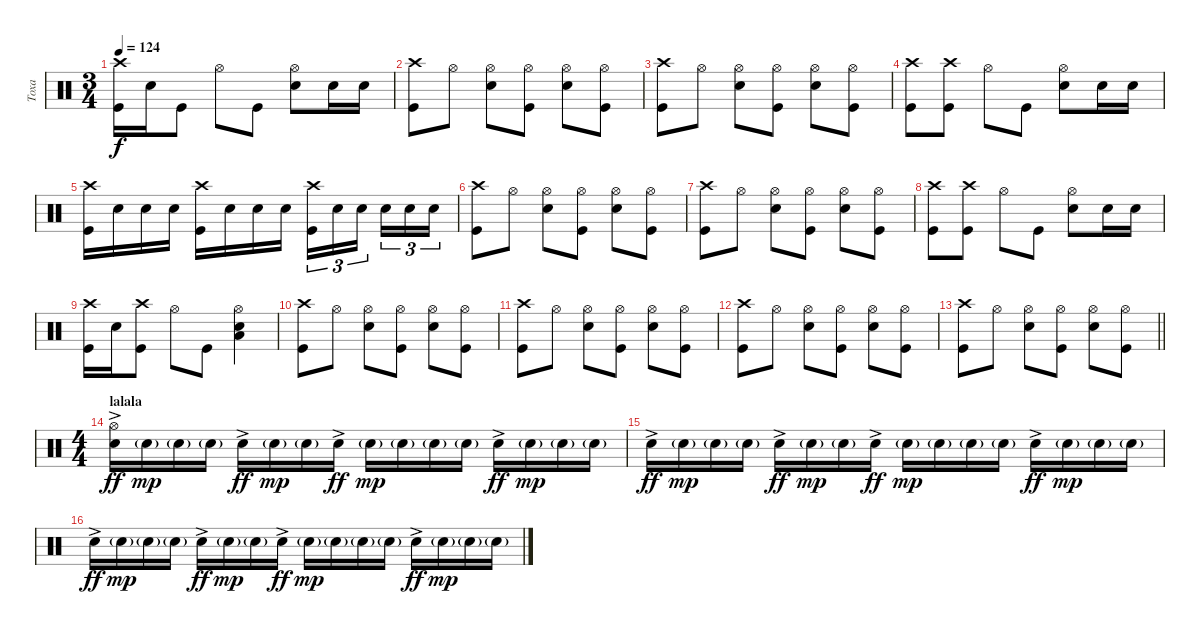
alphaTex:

\track ("Тоха" "Тоха") {instrument percussion}
\staff {score}
\articulation defaults
\ts (3 4)
\tempo 124
\clef neutral
\ks c
("Kick (hit)" "Crash high (hit)").16{dy f} "Snare (hit) 2".16 "Kick (hit)".8 "Hi-Hat (open)".8 "Kick (hit)".8 ("Snare (hit) 2" "Hi-Hat (open)").8 "Snare (hit) 2".16 "Snare (hit) 2".16 |
("Kick (hit)" "Crash high (hit)").8 "Hi-Hat (open)".8 ("Snare (hit) 2" "Hi-Hat (open)").8 ("Kick (hit)" "Hi-Hat (open)").8 ("Snare (hit) 2" "Hi-Hat (open)").8 ("Kick (hit)" "Hi-Hat (open)").8 |
("Kick (hit)" "Crash high (hit)").8 "Hi-Hat (open)".8 ("Snare (hit) 2" "Hi-Hat (open)").8 ("Kick (hit)" "Hi-Hat (open)").8 ("Snare (hit) 2" "Hi-Hat (open)").8 ("Kick (hit)" "Hi-Hat (open)").8 |
("Kick (hit)" "Crash high (hit)").8 ("Kick (hit)" "Crash high (hit)").8 "Hi-Hat (open)".8 "Kick (hit)".8 ("Snare (hit) 2" "Hi-Hat (open)").8 "Snare (hit) 2".16 "Snare (hit) 2".16 |
("Kick (hit)" "Crash high (hit)").16 "Snare (hit) 2".16 "Snare (hit) 2".16 "Snare (hit) 2".16 ("Kick (hit)" "Crash high (hit)").16 "Snare (hit) 2".16 "Snare (hit) 2".16 "Snare (hit) 2".16 ("Kick (hit)" "Crash high (hit)").16{tu (3 2)} "Snare (hit) 2".16{tu (3 2)} "Snare (hit) 2".16{tu (3 2) beam splitsecondary} "Snare (hit) 2".16{tu (3 2)} "Snare (hit) 2".16{tu (3 2)} "Snare (hit) 2".16{tu (3 2)} |
("Kick (hit)" "Crash high (hit)").8 "Hi-Hat (open)".8 ("Snare (hit) 2" "Hi-Hat (open)").8 ("Kick (hit)" "Hi-Hat (open)").8 ("Snare (hit) 2" "Hi-Hat (open)").8 ("Kick (hit)" "Hi-Hat (open)").8 |
("Kick (hit)" "Crash high (hit)").8 "Hi-Hat (open)".8 ("Snare (hit) 2" "Hi-Hat (open)").8 ("Kick (hit)" "Hi-Hat (open)").8 ("Snare (hit) 2" "Hi-Hat (open)").8 ("Kick (hit)" "Hi-Hat (open)").8 |
("Kick (hit)" "Crash high (hit)").8 ("Kick (hit)" "Crash high (hit)").8 "Hi-Hat (open)".8 "Kick (hit)".8 ("Snare (hit) 2" "Hi-Hat (open)").8 "Snare (hit) 2".16 "Snare (hit) 2".16 |
("Kick (hit)" "Crash high (hit)").16 "Snare (hit) 2".16 ("Kick (hit)" "Crash high (hit)").8 "Hi-Hat (open)".8 "Kick (hit)".8 ("Snare (hit) 2" "Low Floor Tom (hit)" "Hi-Hat (open)").4 |
("Kick (hit)" "Crash high (hit)").8 "Hi-Hat (open)".8 ("Snare (hit) 2" "Hi-Hat (open)").8 ("Kick (hit)" "Hi-Hat (open)").8 ("Snare (hit) 2" "Hi-Hat (open)").8 ("Kick (hit)" "Hi-Hat (open)").8 |
("Kick (hit)" "Crash high (hit)").8 "Hi-Hat (open)".8 ("Snare (hit) 2" "Hi-Hat (open)").8 ("Kick (hit)" "Hi-Hat (open)").8 ("Snare (hit) 2" "Hi-Hat (open)").8 ("Kick (hit)" "Hi-Hat (open)").8 |
("Kick (hit)" "Crash high (hit)").8 "Hi-Hat (open)".8 ("Snare (hit) 2" "Hi-Hat (open)").8 ("Kick (hit)" "Hi-Hat (open)").8 ("Snare (hit) 2" "Hi-Hat (open)").8 ("Kick (hit)" "Hi-Hat (open)").8 |
\barLineRight lightlight
("Kick (hit)" "Crash high (hit)").8 "Hi-Hat (open)".8 ("Snare (hit) 2" "Hi-Hat (open)").8 ("Kick (hit)" "Hi-Hat (open)").8 ("Snare (hit) 2" "Hi-Hat (open)").8 ("Kick (hit)" "Hi-Hat (open)").8 |
\ts (4 4)
\section ("" "lalala")
("Snare (hit) 2"{ac} "Hi-Hat (open)").16{dy ff} "Snare (hit) 2"{g}.16{dy mp} "Snare (hit) 2"{g}.16 "Snare (hit) 2"{g}.16 "Snare (hit) 2"{ac}.16{dy ff} "Snare (hit) 2"{g}.16{dy mp} "Snare (hit) 2"{g}.16 "Snare (hit) 2"{ac}.16{dy ff} "Snare (hit) 2"{g}.16{dy mp} "Snare (hit) 2"{g}.16 "Snare (hit) 2"{g}.16 "Snare (hit) 2"{g}.16 "Snare (hit) 2"{ac}.16{dy ff} "Snare (hit) 2"{g}.16{dy mp} "Snare (hit) 2"{g}.16 "Snare (hit) 2"{g}.16 |
"Snare (hit) 2"{ac}.16{dy ff} "Snare (hit) 2"{g}.16{dy mp} "Snare (hit) 2"{g}.16 "Snare (hit) 2"{g}.16 "Snare (hit) 2"{ac}.16{dy ff} "Snare (hit) 2"{g}.16{dy mp} "Snare (hit) 2"{g}.16 "Snare (hit) 2"{ac}.16{dy ff} "Snare (hit) 2"{g}.16{dy mp} "Snare (hit) 2"{g}.16 "Snare (hit) 2"{g}.16 "Snare (hit) 2"{g}.16 "Snare (hit) 2"{ac}.16{dy ff} "Snare (hit) 2"{g}.16{dy mp} "Snare (hit) 2"{g}.16 "Snare (hit) 2"{g}.16 |
"Snare (hit) 2"{ac}.16{dy ff} "Snare (hit) 2"{g}.16{dy mp} "Snare (hit) 2"{g}.16 "Snare (hit) 2"{g}.16 "Snare (hit) 2"{ac}.16{dy ff} "Snare (hit) 2"{g}.16{dy mp} "Snare (hit) 2"{g}.16 "Snare (hit) 2"{ac}.16{dy ff} "Snare (hit) 2"{g}.16{dy mp} "Snare (hit) 2"{g}.16 "Snare (hit) 2"{g}.16 "Snare (hit) 2"{g}.16 "Snare (hit) 2"{ac}.16{dy ff} "Snare (hit) 2"{g}.16{dy mp} "Snare (hit) 2"{g}.16 "Snare (hit) 2"{g}.16
